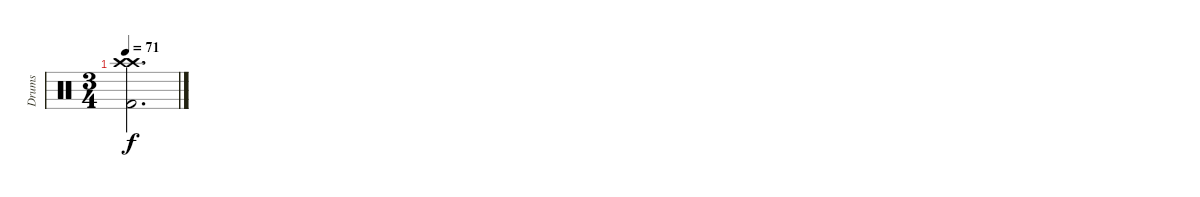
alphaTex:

\track ("Drums" "Drums") {instrument percussion}
\staff {score}
\articulation defaults
\ts (3 4)
\tempo 71
\clef neutral
\ks c
("Crash high (hit)" "Crash high (hit)" "Kick (hit) 2").2{d dy f}
